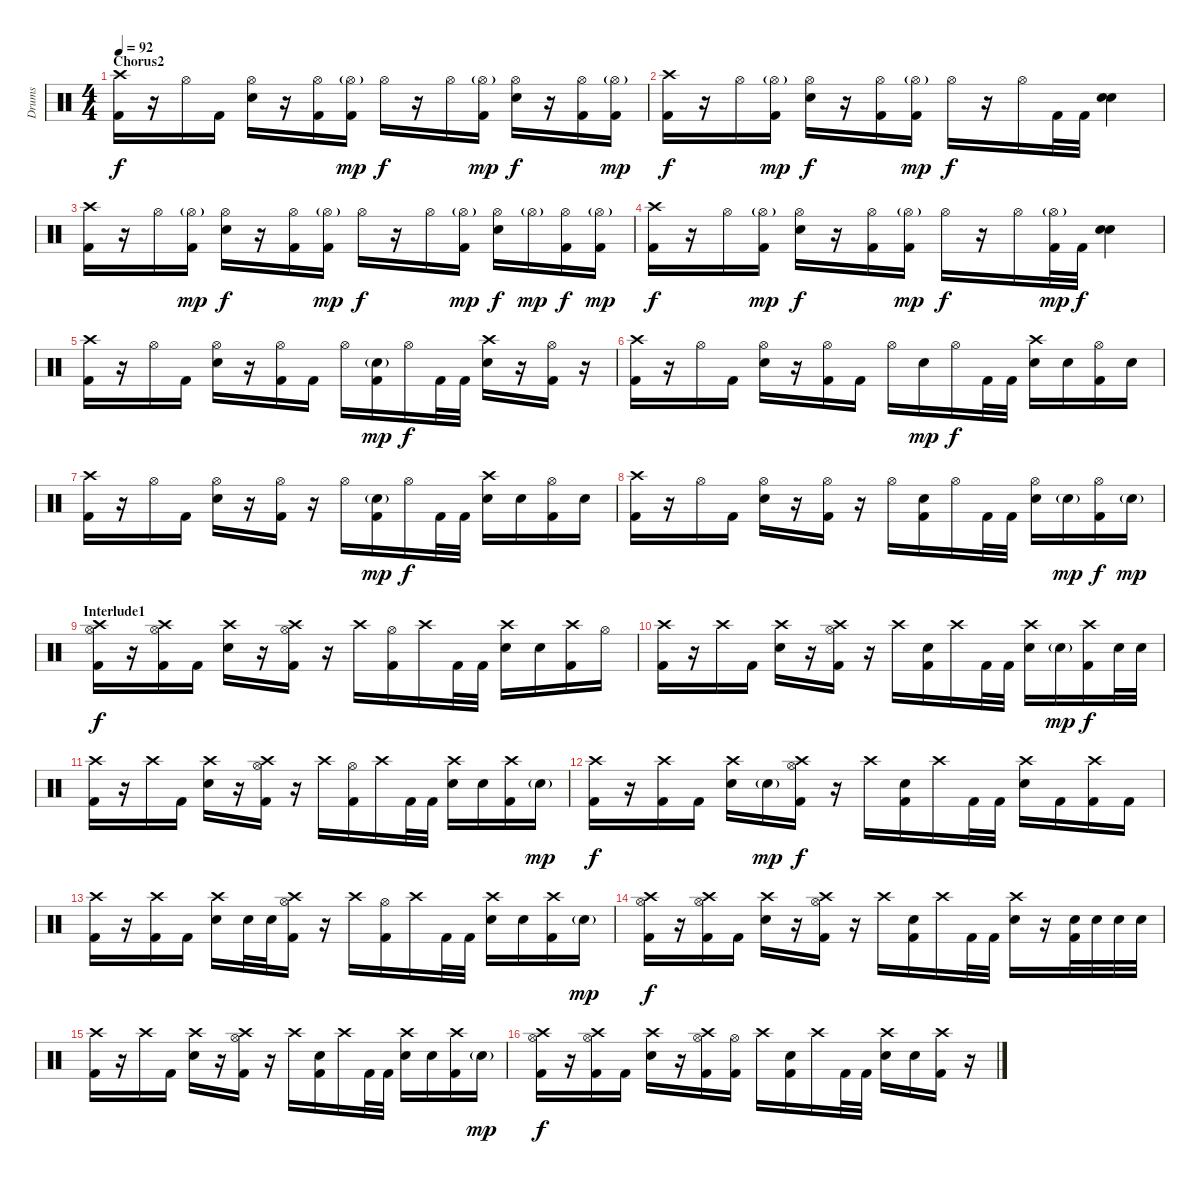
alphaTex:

\track ("Drums" "Drums") {instrument percussion}
\staff {score}
\articulation defaults
\ts (4 4)
\section ("" "Chorus2")
\tempo 92
\clef neutral
\ks c
("Crash high (hit)" "Kick (hit) 2").16{dy f} r.16 "Hi-Hat (open)".16 "Kick (hit) 2".16 ("Hi-Hat (open)" "Snare (hit) 2").16 r.16 ("Hi-Hat (open)" "Kick (hit) 2").16 ("Hi-Hat (open)"{g} "Kick (hit) 2").16{dy mp} "Hi-Hat (open)".16{dy f} r.16 "Hi-Hat (open)".16 ("Hi-Hat (open)"{g} "Kick (hit) 2").16{dy mp} ("Hi-Hat (open)" "Snare (hit) 2").16{dy f} r.16 ("Hi-Hat (open)" "Kick (hit) 2").16 ("Hi-Hat (open)"{g} "Kick (hit) 2").16{dy mp} |
("Crash high (hit)" "Kick (hit) 2").16{dy f} r.16 "Hi-Hat (open)".16 ("Hi-Hat (open)"{g} "Kick (hit) 2").16{dy mp} ("Hi-Hat (open)" "Snare (hit) 2").16{dy f} r.16 ("Hi-Hat (open)" "Kick (hit) 2").16 ("Hi-Hat (open)"{g} "Kick (hit) 2").16{dy mp} "Hi-Hat (open)".16{dy f} r.16 "Hi-Hat (open)".16 "Kick (hit) 2".32 "Kick (hit) 2".32 ("Snare (hit) 2" "Snare (hit) 2").4 |
("Crash high (hit)" "Kick (hit) 2").16 r.16 "Hi-Hat (open)".16 ("Hi-Hat (open)"{g} "Kick (hit) 2").16{dy mp} ("Hi-Hat (open)" "Snare (hit) 2").16{dy f} r.16 ("Hi-Hat (open)" "Kick (hit) 2").16 ("Hi-Hat (open)"{g} "Kick (hit) 2").16{dy mp} "Hi-Hat (open)".16{dy f} r.16 "Hi-Hat (open)".16 ("Hi-Hat (open)"{g} "Kick (hit) 2").16{dy mp} ("Hi-Hat (open)" "Snare (hit) 2").16{dy f} "Hi-Hat (open)"{g}.16{dy mp} ("Hi-Hat (open)" "Kick (hit) 2").16{dy f} ("Hi-Hat (open)"{g} "Kick (hit) 2").16{dy mp} |
("Crash high (hit)" "Kick (hit) 2").16{dy f} r.16 "Hi-Hat (open)".16 ("Hi-Hat (open)"{g} "Kick (hit) 2").16{dy mp} ("Hi-Hat (open)" "Snare (hit) 2").16{dy f} r.16 ("Hi-Hat (open)" "Kick (hit) 2").16 ("Hi-Hat (open)"{g} "Kick (hit) 2").16{dy mp} "Hi-Hat (open)".16{dy f} r.16 "Hi-Hat (open)".16 ("Hi-Hat (open)"{g} "Kick (hit) 2").32{dy mp} "Kick (hit) 2".32{dy f} ("Snare (hit) 2" "Snare (hit) 2").4 |
("Crash high (hit)" "Kick (hit) 2").16 r.16 "Hi-Hat (open)".16 "Kick (hit) 2".16 ("Hi-Hat (open)" "Snare (hit) 2").16 r.16 ("Hi-Hat (open)" "Kick (hit) 2").16 "Kick (hit) 2".16 "Hi-Hat (open)".16 ("Snare (hit) 2"{g} "Kick (hit) 2").16{dy mp} "Hi-Hat (open)".16{dy f} "Kick (hit) 2".32 "Kick (hit) 2".32 ("Crash high (hit)" "Snare (hit) 2").16 r.16 ("Hi-Hat (open)" "Kick (hit) 2").16 r.16 |
("Crash high (hit)" "Kick (hit) 2").16 r.16 "Hi-Hat (open)".16 "Kick (hit) 2".16 ("Hi-Hat (open)" "Snare (hit) 2").16 r.16 ("Hi-Hat (open)" "Kick (hit) 2").16 "Kick (hit) 2".16 "Hi-Hat (open)".16 "Snare (hit) 2".16{dy mp} "Hi-Hat (open)".16{dy f} "Kick (hit) 2".32 "Kick (hit) 2".32 ("Crash high (hit)" "Snare (hit) 2").16 "Snare (hit) 2".16 ("Hi-Hat (open)" "Kick (hit) 2").16 "Snare (hit) 2".16 |
("Crash high (hit)" "Kick (hit) 2").16 r.16 "Hi-Hat (open)".16 "Kick (hit) 2".16 ("Hi-Hat (open)" "Snare (hit) 2").16 r.16 ("Hi-Hat (open)" "Kick (hit) 2").16 r.16 "Hi-Hat (open)".16 ("Snare (hit) 2"{g} "Kick (hit) 2").16{dy mp} "Hi-Hat (open)".16{dy f} "Kick (hit) 2".32 "Kick (hit) 2".32 ("Crash high (hit)" "Snare (hit) 2").16 "Snare (hit) 2".16 ("Hi-Hat (open)" "Kick (hit) 2").16 "Snare (hit) 2".16 |
("Crash high (hit)" "Kick (hit) 2").16 r.16 "Hi-Hat (open)".16 "Kick (hit) 2".16 ("Hi-Hat (open)" "Snare (hit) 2").16 r.16 ("Hi-Hat (open)" "Kick (hit) 2").16 r.16 "Hi-Hat (open)".16 ("Snare (hit) 2" "Kick (hit) 2").16 "Hi-Hat (open)".16 "Kick (hit) 2".32 "Kick (hit) 2".32 ("Hi-Hat (open)" "Snare (hit) 2").16 "Snare (hit) 2"{g}.16{dy mp} ("Hi-Hat (open)" "Kick (hit) 2").16{dy f} "Snare (hit) 2"{g}.16{dy mp} |
\section ("" "Interlude1")
("Crash high (hit)" "Hi-Hat (open)" "Kick (hit) 2").16{dy f} r.16 ("Crash high (hit)" "Hi-Hat (open)" "Kick (hit) 2").16 "Kick (hit) 2".16 ("Crash high (hit)" "Snare (hit) 2").16 r.16 ("Crash high (hit)" "Hi-Hat (open)" "Kick (hit) 2").16 r.16 "Crash high (hit)".16 ("Hi-Hat (open)" "Kick (hit) 2").16 "Crash high (hit)".16 "Kick (hit) 2".32 "Kick (hit) 2".32 ("Crash high (hit)" "Snare (hit) 2").16 "Snare (hit) 2".16 ("Crash high (hit)" "Kick (hit) 2").16 "Hi-Hat (open)".16 |
("Crash high (hit)" "Kick (hit) 2").16 r.16 "Crash high (hit)".16 "Kick (hit) 2".16 ("Crash high (hit)" "Snare (hit) 2").16 r.16 ("Crash high (hit)" "Hi-Hat (open)" "Kick (hit) 2").16 r.16 "Crash high (hit)".16 ("Snare (hit) 2" "Kick (hit) 2").16 "Crash high (hit)".16 "Kick (hit) 2".32 "Kick (hit) 2".32 ("Crash high (hit)" "Snare (hit) 2").16 "Snare (hit) 2"{g}.16{dy mp} ("Crash high (hit)" "Kick (hit) 2").16{dy f} "Snare (hit) 2".32 "Snare (hit) 2".32 |
("Crash high (hit)" "Kick (hit) 2").16 r.16 "Crash high (hit)".16 "Kick (hit) 2".16 ("Crash high (hit)" "Snare (hit) 2").16 r.16 ("Crash high (hit)" "Hi-Hat (open)" "Kick (hit) 2").16 r.16 "Crash high (hit)".16 ("Hi-Hat (open)" "Kick (hit) 2").16 "Crash high (hit)".16 "Kick (hit) 2".32 "Kick (hit) 2".32 ("Crash high (hit)" "Snare (hit) 2").16 "Snare (hit) 2".16 ("Crash high (hit)" "Kick (hit) 2").16 "Snare (hit) 2"{g}.16{dy mp} |
("Crash high (hit)" "Kick (hit) 2").16{dy f} r.16 ("Crash high (hit)" "Kick (hit) 2").16 "Kick (hit) 2".16 ("Crash high (hit)" "Snare (hit) 2").16 "Snare (hit) 2"{g}.16{dy mp} ("Crash high (hit)" "Hi-Hat (open)" "Kick (hit) 2").16{dy f} r.16 "Crash high (hit)".16 ("Snare (hit) 2" "Kick (hit) 2").16 "Crash high (hit)".16 "Kick (hit) 2".32 "Kick (hit) 2".32 ("Crash high (hit)" "Snare (hit) 2").16 "Kick (hit) 2".16 ("Crash high (hit)" "Kick (hit) 2").16 "Kick (hit) 2".16 |
("Crash high (hit)" "Kick (hit) 2").16 r.16 ("Crash high (hit)" "Kick (hit) 2").16 "Kick (hit) 2".16 ("Crash high (hit)" "Snare (hit) 2").16 "Snare (hit) 2".32 "Snare (hit) 2".32 ("Crash high (hit)" "Hi-Hat (open)" "Kick (hit) 2").16 r.16 "Crash high (hit)".16 ("Hi-Hat (open)" "Kick (hit) 2").16 "Crash high (hit)".16 "Kick (hit) 2".32 "Kick (hit) 2".32 ("Crash high (hit)" "Snare (hit) 2").16 "Snare (hit) 2".16 ("Crash high (hit)" "Kick (hit) 2").16 "Snare (hit) 2"{g}.16{dy mp} |
("Crash high (hit)" "Hi-Hat (open)" "Kick (hit) 2").16{dy f} r.16 ("Crash high (hit)" "Hi-Hat (open)" "Kick (hit) 2").16 "Kick (hit) 2".16 ("Crash high (hit)" "Snare (hit) 2").16 r.16 ("Crash high (hit)" "Hi-Hat (open)" "Kick (hit) 2").16 r.16 "Crash high (hit)".16 ("Snare (hit) 2" "Kick (hit) 2").16 "Crash high (hit)".16 "Kick (hit) 2".32 "Kick (hit) 2".32 ("Crash high (hit)" "Snare (hit) 2").16 r.16 ("Snare (hit) 2" "Kick (hit) 2").32 "Snare (hit) 2".32 "Snare (hit) 2".32 "Snare (hit) 2".32 |
("Crash high (hit)" "Kick (hit) 2").16 r.16 "Crash high (hit)".16 "Kick (hit) 2".16 ("Crash high (hit)" "Snare (hit) 2").16 r.16 ("Crash high (hit)" "Hi-Hat (open)" "Kick (hit) 2").16 r.16 "Crash high (hit)".16 ("Snare (hit) 2" "Kick (hit) 2").16 "Crash high (hit)".16 "Kick (hit) 2".32 "Kick (hit) 2".32 ("Crash high (hit)" "Snare (hit) 2").16 "Snare (hit) 2".16 ("Crash high (hit)" "Kick (hit) 2").16 "Snare (hit) 2"{g}.16{dy mp} |
("Crash high (hit)" "Hi-Hat (open)" "Kick (hit) 2").16{dy f} r.16 ("Crash high (hit)" "Hi-Hat (open)" "Kick (hit) 2").16 "Kick (hit) 2".16 ("Crash high (hit)" "Snare (hit) 2").16 r.16 ("Crash high (hit)" "Hi-Hat (open)" "Kick (hit) 2").16 ("Hi-Hat (open)" "Kick (hit) 2").16 "Crash high (hit)".16 ("Snare (hit) 2" "Kick (hit) 2").16 "Crash high (hit)".16 "Kick (hit) 2".32 "Kick (hit) 2".32 ("Crash high (hit)" "Snare (hit) 2").16 "Snare (hit) 2".16 ("Crash high (hit)" "Kick (hit) 2").16 r.16
